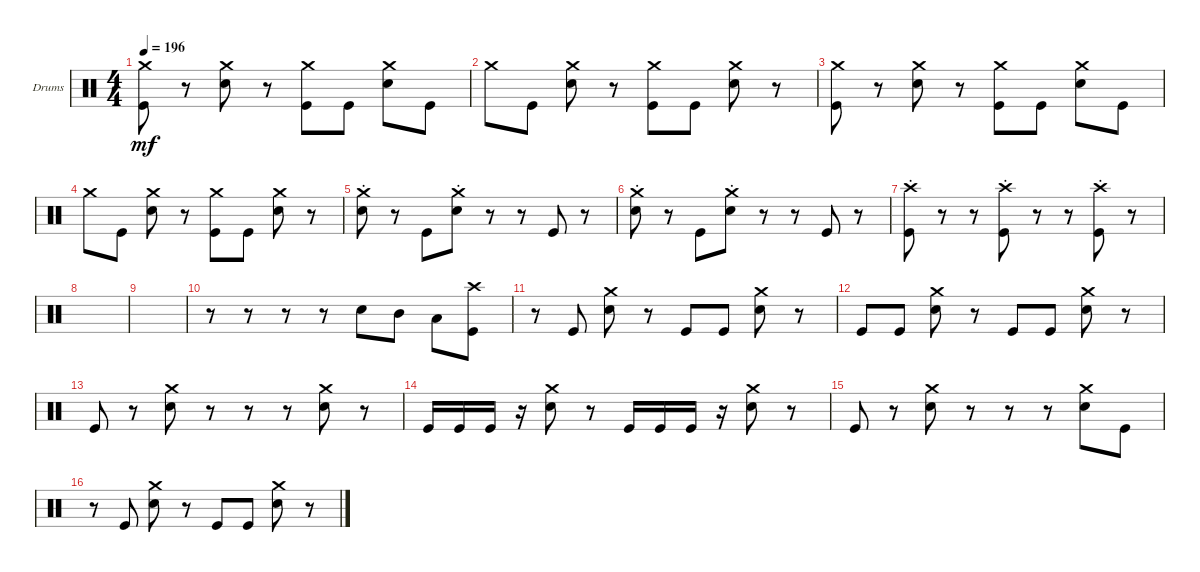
\defaultSystemsLayout 4
\bracketExtendMode groupsimilarinstruments
\firstSystemTrackNameOrientation horizontal
\otherSystemsTrackNameOrientation horizontal
\track ("Drumkit" "Drums") {instrument percussion}
\staff {score}
\articulation defaults
\ts (4 4)
\tempo 196
\clef neutral
\ks c
("Kick (hit)" "Crash medium (hit)").8{dy mf} r.8 ("Snare (hit) 2" "Crash medium (hit)").8 r.8 ("Kick (hit)" "Crash medium (hit)").8 "Kick (hit)".8 ("Snare (hit) 2" "Crash medium (hit)").8 "Kick (hit)".8 |
"Crash medium (hit)".8 "Kick (hit)".8 ("Snare (hit) 2" "Crash medium (hit)").8 r.8 ("Kick (hit)" "Crash medium (hit)").8 "Kick (hit)".8 ("Snare (hit) 2" "Crash medium (hit)").8 r.8 |
("Kick (hit)" "Crash medium (hit)").8 r.8 ("Snare (hit) 2" "Crash medium (hit)").8 r.8 ("Kick (hit)" "Crash medium (hit)").8 "Kick (hit)".8 ("Snare (hit) 2" "Crash medium (hit)").8 "Kick (hit)".8 |
"Crash medium (hit)".8 "Kick (hit)".8 ("Snare (hit) 2" "Crash medium (hit)").8 r.8 ("Kick (hit)" "Crash medium (hit)").8 "Kick (hit)".8 ("Snare (hit) 2" "Crash medium (hit)").8 r.8 |
("Snare (hit) 2" "Crash medium (hit)"{st}).8 r.8 "Kick (hit)".8 ("Snare (hit) 2" "Crash medium (hit)"{st}).8 r.8 r.8 "Kick (hit)".8 r.8 |
("Snare (hit) 2" "Crash medium (hit)"{st}).8 r.8 "Kick (hit)".8 ("Snare (hit) 2" "Crash medium (hit)"{st}).8 r.8 r.8 "Kick (hit)".8 r.8 |
("Kick (hit)" "Crash high (hit)"{st}).8 r.8 r.8 ("Kick (hit)" "Crash high (hit)"{st}).8 r.8 r.8 ("Kick (hit)" "Crash high (hit)"{st}).8 r.8 |
|
|
r.8 r.8 r.8 r.8 "Snare (hit) 2".8 "Mid Tom (hit)".8 "Low Tom (hit)".8 ("Kick (hit)" "Crash high (hit)").8 |
r.8 "Kick (hit)".8 ("Snare (hit) 2" "Crash medium (hit)").8 r.8 "Kick (hit)".8 "Kick (hit)".8 ("Snare (hit) 2" "Crash medium (hit)").8 r.8 |
"Kick (hit)".8 "Kick (hit)".8 ("Snare (hit) 2" "Crash medium (hit)").8 r.8 "Kick (hit)".8 "Kick (hit)".8 ("Snare (hit) 2" "Crash medium (hit)").8 r.8 |
"Kick (hit)".8 r.8 ("Snare (hit) 2" "Crash medium (hit)").8 r.8 r.8 r.8 ("Snare (hit) 2" "Crash medium (hit)").8 r.8 |
"Kick (hit)".16 "Kick (hit)".16 "Kick (hit)".16 r.16 ("Snare (hit) 2" "Crash medium (hit)").8 r.8 "Kick (hit)".16 "Kick (hit)".16 "Kick (hit)".16 r.16 ("Snare (hit) 2" "Crash medium (hit)").8 r.8 |
"Kick (hit)".8 r.8 ("Snare (hit) 2" "Crash medium (hit)").8 r.8 r.8 r.8 ("Snare (hit) 2" "Crash medium (hit)").8 "Kick (hit)".8 |
r.8 "Kick (hit)".8 ("Snare (hit) 2" "Crash medium (hit)").8 r.8 "Kick (hit)".8 "Kick (hit)".8 ("Snare (hit) 2" "Crash medium (hit)").8 r.8
